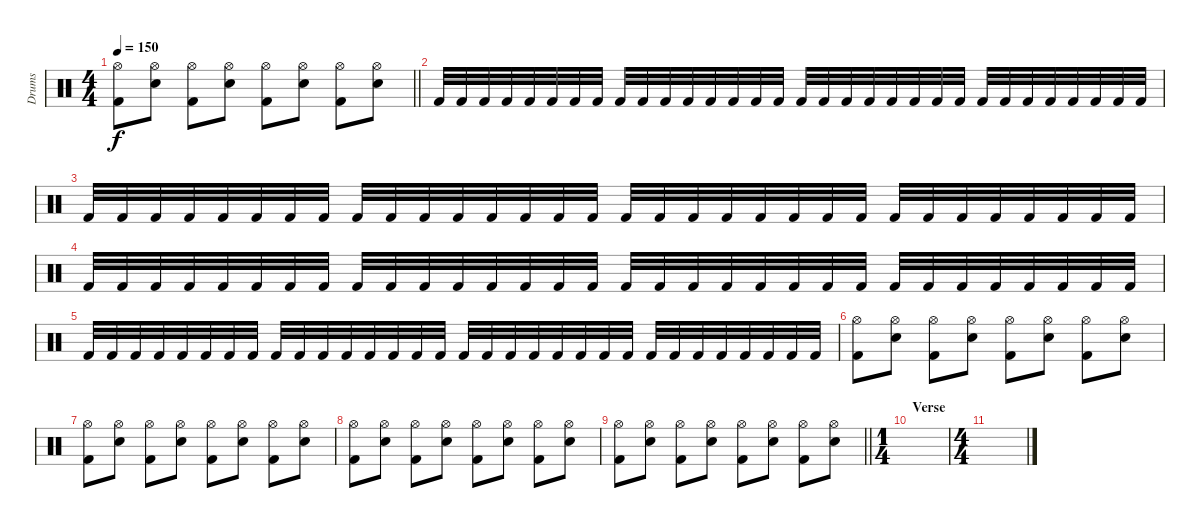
\track ("Drums" "Drums") {instrument percussion}
\staff {score}
\articulation defaults
\ts (4 4)
\tempo 150
\clef neutral
\barLineRight lightlight
\ks c
("Hi-Hat (open)" "Kick (hit) 2").8{dy f} ("Hi-Hat (open)" "Snare (hit) 2").8 ("Hi-Hat (open)" "Kick (hit) 2").8 ("Hi-Hat (open)" "Snare (hit) 2").8 ("Hi-Hat (open)" "Kick (hit) 2").8 ("Hi-Hat (open)" "Snare (hit) 2").8 ("Hi-Hat (open)" "Kick (hit) 2").8 ("Hi-Hat (open)" "Snare (hit) 2").8 |
"Kick (hit) 2".32 "Kick (hit) 2".32 "Kick (hit) 2".32 "Kick (hit) 2".32 "Kick (hit) 2".32 "Kick (hit) 2".32 "Kick (hit) 2".32 "Kick (hit) 2".32 "Kick (hit) 2".32 "Kick (hit) 2".32 "Kick (hit) 2".32 "Kick (hit) 2".32 "Kick (hit) 2".32 "Kick (hit) 2".32 "Kick (hit) 2".32 "Kick (hit) 2".32 "Kick (hit) 2".32 "Kick (hit) 2".32 "Kick (hit) 2".32 "Kick (hit) 2".32 "Kick (hit) 2".32 "Kick (hit) 2".32 "Kick (hit) 2".32 "Kick (hit) 2".32 "Kick (hit) 2".32 "Kick (hit) 2".32 "Kick (hit) 2".32 "Kick (hit) 2".32 "Kick (hit) 2".32 "Kick (hit) 2".32 "Kick (hit) 2".32 "Kick (hit) 2".32 |
"Kick (hit) 2".32 "Kick (hit) 2".32 "Kick (hit) 2".32 "Kick (hit) 2".32 "Kick (hit) 2".32 "Kick (hit) 2".32 "Kick (hit) 2".32 "Kick (hit) 2".32 "Kick (hit) 2".32 "Kick (hit) 2".32 "Kick (hit) 2".32 "Kick (hit) 2".32 "Kick (hit) 2".32 "Kick (hit) 2".32 "Kick (hit) 2".32 "Kick (hit) 2".32 "Kick (hit) 2".32 "Kick (hit) 2".32 "Kick (hit) 2".32 "Kick (hit) 2".32 "Kick (hit) 2".32 "Kick (hit) 2".32 "Kick (hit) 2".32 "Kick (hit) 2".32 "Kick (hit) 2".32 "Kick (hit) 2".32 "Kick (hit) 2".32 "Kick (hit) 2".32 "Kick (hit) 2".32 "Kick (hit) 2".32 "Kick (hit) 2".32 "Kick (hit) 2".32 |
"Kick (hit) 2".32 "Kick (hit) 2".32 "Kick (hit) 2".32 "Kick (hit) 2".32 "Kick (hit) 2".32 "Kick (hit) 2".32 "Kick (hit) 2".32 "Kick (hit) 2".32 "Kick (hit) 2".32 "Kick (hit) 2".32 "Kick (hit) 2".32 "Kick (hit) 2".32 "Kick (hit) 2".32 "Kick (hit) 2".32 "Kick (hit) 2".32 "Kick (hit) 2".32 "Kick (hit) 2".32 "Kick (hit) 2".32 "Kick (hit) 2".32 "Kick (hit) 2".32 "Kick (hit) 2".32 "Kick (hit) 2".32 "Kick (hit) 2".32 "Kick (hit) 2".32 "Kick (hit) 2".32 "Kick (hit) 2".32 "Kick (hit) 2".32 "Kick (hit) 2".32 "Kick (hit) 2".32 "Kick (hit) 2".32 "Kick (hit) 2".32 "Kick (hit) 2".32 |
"Kick (hit) 2".32 "Kick (hit) 2".32 "Kick (hit) 2".32 "Kick (hit) 2".32 "Kick (hit) 2".32 "Kick (hit) 2".32 "Kick (hit) 2".32 "Kick (hit) 2".32 "Kick (hit) 2".32 "Kick (hit) 2".32 "Kick (hit) 2".32 "Kick (hit) 2".32 "Kick (hit) 2".32 "Kick (hit) 2".32 "Kick (hit) 2".32 "Kick (hit) 2".32 "Kick (hit) 2".32 "Kick (hit) 2".32 "Kick (hit) 2".32 "Kick (hit) 2".32 "Kick (hit) 2".32 "Kick (hit) 2".32 "Kick (hit) 2".32 "Kick (hit) 2".32 "Kick (hit) 2".32 "Kick (hit) 2".32 "Kick (hit) 2".32 "Kick (hit) 2".32 "Kick (hit) 2".32 "Kick (hit) 2".32 "Kick (hit) 2".32 "Kick (hit) 2".32 |
("Hi-Hat (open)" "Kick (hit) 2").8 ("Hi-Hat (open)" "Snare (hit) 2").8 ("Hi-Hat (open)" "Kick (hit) 2").8 ("Hi-Hat (open)" "Snare (hit) 2").8 ("Hi-Hat (open)" "Kick (hit) 2").8 ("Hi-Hat (open)" "Snare (hit) 2").8 ("Hi-Hat (open)" "Kick (hit) 2").8 ("Hi-Hat (open)" "Snare (hit) 2").8 |
("Hi-Hat (open)" "Kick (hit) 2").8 ("Hi-Hat (open)" "Snare (hit) 2").8 ("Hi-Hat (open)" "Kick (hit) 2").8 ("Hi-Hat (open)" "Snare (hit) 2").8 ("Hi-Hat (open)" "Kick (hit) 2").8 ("Hi-Hat (open)" "Snare (hit) 2").8 ("Hi-Hat (open)" "Kick (hit) 2").8 ("Hi-Hat (open)" "Snare (hit) 2").8 |
("Hi-Hat (open)" "Kick (hit) 2").8 ("Hi-Hat (open)" "Snare (hit) 2").8 ("Hi-Hat (open)" "Kick (hit) 2").8 ("Hi-Hat (open)" "Snare (hit) 2").8 ("Hi-Hat (open)" "Kick (hit) 2").8 ("Hi-Hat (open)" "Snare (hit) 2").8 ("Hi-Hat (open)" "Kick (hit) 2").8 ("Hi-Hat (open)" "Snare (hit) 2").8 |
\barLineRight lightlight
("Hi-Hat (open)" "Kick (hit) 2").8 ("Hi-Hat (open)" "Snare (hit) 2").8 ("Hi-Hat (open)" "Kick (hit) 2").8 ("Hi-Hat (open)" "Snare (hit) 2").8 ("Hi-Hat (open)" "Kick (hit) 2").8 ("Hi-Hat (open)" "Snare (hit) 2").8 ("Hi-Hat (open)" "Kick (hit) 2").8 ("Hi-Hat (open)" "Snare (hit) 2").8 |
\ts (1 4)
\section ("" "Verse")
|
\ts (4 4)
